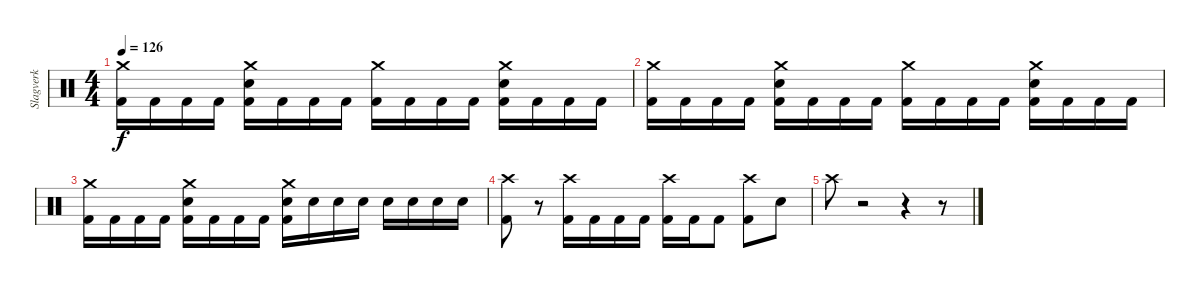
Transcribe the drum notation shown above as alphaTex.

\track ("Slagverk" "Slagverk") {instrument percussion}
\staff {score}
\articulation defaults
\ts (4 4)
\tempo 126
\clef neutral
\ks c
("Crash medium (hit)" "Kick (hit) 2").16{dy f} "Kick (hit) 2".16 "Kick (hit) 2".16 "Kick (hit) 2".16 ("Electric Snare (hit)" "Kick (hit) 2" "Crash medium (hit)").16 "Kick (hit) 2".16 "Kick (hit) 2".16 "Kick (hit) 2".16 ("Crash medium (hit)" "Kick (hit) 2").16 "Kick (hit) 2".16 "Kick (hit) 2".16 "Kick (hit) 2".16 ("Electric Snare (hit)" "Kick (hit) 2" "Crash medium (hit)").16 "Kick (hit) 2".16 "Kick (hit) 2".16 "Kick (hit) 2".16 |
("Crash medium (hit)" "Kick (hit) 2").16 "Kick (hit) 2".16 "Kick (hit) 2".16 "Kick (hit) 2".16 ("Electric Snare (hit)" "Kick (hit) 2" "Crash medium (hit)").16 "Kick (hit) 2".16 "Kick (hit) 2".16 "Kick (hit) 2".16 ("Crash medium (hit)" "Kick (hit) 2").16 "Kick (hit) 2".16 "Kick (hit) 2".16 "Kick (hit) 2".16 ("Electric Snare (hit)" "Kick (hit) 2" "Crash medium (hit)").16 "Kick (hit) 2".16 "Kick (hit) 2".16 "Kick (hit) 2".16 |
("Crash medium (hit)" "Kick (hit) 2").16 "Kick (hit) 2".16 "Kick (hit) 2".16 "Kick (hit) 2".16 ("Electric Snare (hit)" "Kick (hit) 2" "Crash medium (hit)").16 "Kick (hit) 2".16 "Kick (hit) 2".16 "Kick (hit) 2".16 ("Electric Snare (hit)" "Kick (hit) 2" "Crash medium (hit)").16 "Electric Snare (hit)".16 "Electric Snare (hit)".16 "Electric Snare (hit)".16 "Electric Snare (hit)".16 "Electric Snare (hit)".16 "Electric Snare (hit)".16 "Electric Snare (hit)".16 |
("Crash high (hit)" "Kick (hit) 2").8 r.8 ("Crash high (hit)" "Kick (hit) 2").16 "Kick (hit) 2".16 "Kick (hit) 2".16 "Kick (hit) 2".16 ("Crash high (hit)" "Kick (hit) 2").16 "Kick (hit) 2".16 "Kick (hit) 2".8 ("Crash high (hit)" "Kick (hit) 2").8 "Electric Snare (hit)".8 |
"Crash high (hit)".8 r.2 r.4 r.8
